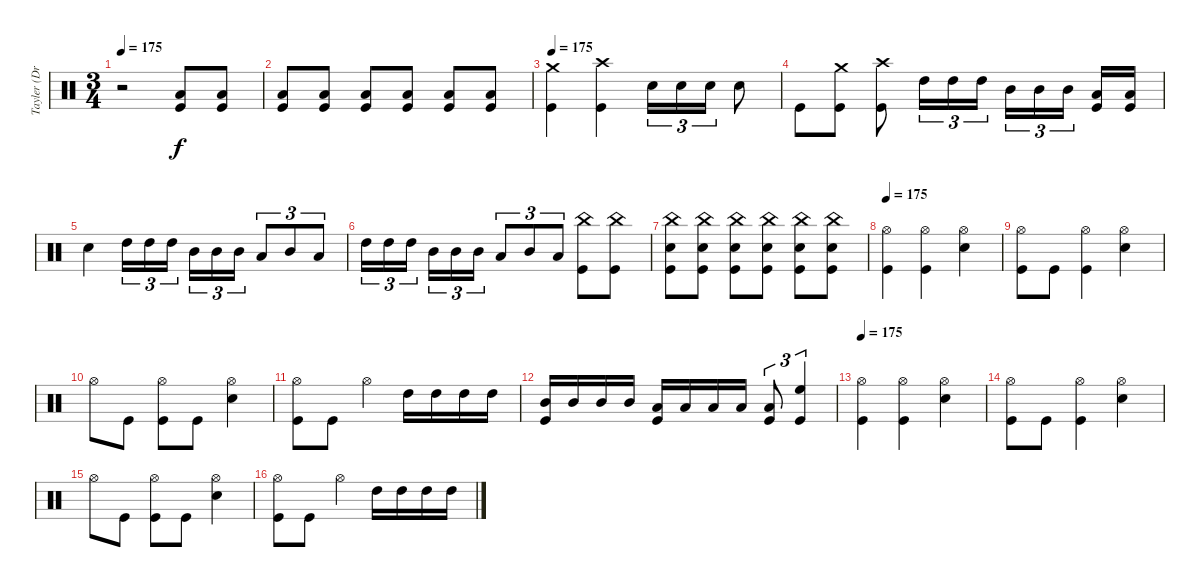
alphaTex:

\track ("Tayler (Drums)" "Tayler (Dr") {instrument percussion}
\staff {score}
\articulation defaults
\ts (3 4)
\tempo 175
\clef neutral
\ks c
r.2{dy f} ("Low Tom (hit)" "Kick (hit)").8 ("Low Tom (hit)" "Kick (hit)").8 |
("Low Tom (hit)" "Kick (hit)").8 ("Low Tom (hit)" "Kick (hit)").8 ("Low Tom (hit)" "Kick (hit)").8 ("Low Tom (hit)" "Kick (hit)").8 ("Low Tom (hit)" "Kick (hit)").8 ("Low Tom (hit)" "Kick (hit)").8 |
\tempo 175
("Crash medium (hit)" "Kick (hit)").4 ("Crash high (hit)" "Kick (hit)").4 "Electric Snare (hit)".16{tu (3 2)} "Electric Snare (hit)".16{tu (3 2)} "Electric Snare (hit)".16{tu (3 2)} "Electric Snare (hit)".8 |
"Kick (hit)".8 ("Crash medium (hit)" "Kick (hit)").8 ("Crash high (hit)" "Kick (hit)").8 "High Tom (hit)".16{tu (3 2)} "High Tom (hit)".16{tu (3 2)} "High Tom (hit)".16{tu (3 2)} "Mid Tom (hit)".16{tu (3 2)} "Mid Tom (hit)".16{tu (3 2)} "Mid Tom (hit)".16{tu (3 2)} ("Low Tom (hit)" "Kick (hit)").16 ("Low Tom (hit)" "Kick (hit)").16 |
"Electric Snare (hit)".4 "High Tom (hit)".16{tu (3 2)} "High Tom (hit)".16{tu (3 2)} "High Tom (hit)".16{tu (3 2)} "Mid Tom (hit)".16{tu (3 2)} "Mid Tom (hit)".16{tu (3 2)} "Mid Tom (hit)".16{tu (3 2)} "Low Tom (hit)".8{tu (3 2)} "Mid Tom (hit)".8{tu (3 2)} "Low Tom (hit)".8{tu (3 2)} |
"High Tom (hit)".16{tu (3 2)} "High Tom (hit)".16{tu (3 2)} "High Tom (hit)".16{tu (3 2)} "Mid Tom (hit)".16{tu (3 2)} "Mid Tom (hit)".16{tu (3 2)} "Mid Tom (hit)".16{tu (3 2)} "Low Tom (hit)".8{tu (3 2)} "Mid Tom (hit)".8{tu (3 2)} "Low Tom (hit)".8{tu (3 2)} ("China (hit)" "Kick (hit)").8 ("China (hit)" "Kick (hit)").8 |
("China (hit)" "Electric Snare (hit)" "Kick (hit)").8 ("China (hit)" "Electric Snare (hit)" "Kick (hit)").8 ("China (hit)" "Electric Snare (hit)" "Kick (hit)").8 ("China (hit)" "Electric Snare (hit)" "Kick (hit)").8 ("China (hit)" "Electric Snare (hit)" "Kick (hit)").8 ("China (hit)" "Electric Snare (hit)" "Kick (hit)").8 |
\tempo 175
("Hi-Hat (open)" "Kick (hit)").4 ("Hi-Hat (open)" "Kick (hit)").4 ("Hi-Hat (open)" "Electric Snare (hit)").4 |
("Hi-Hat (open)" "Kick (hit)").8 "Kick (hit)".8 ("Hi-Hat (open)" "Kick (hit)").4 ("Hi-Hat (open)" "Electric Snare (hit)").4 |
"Hi-Hat (open)".8 "Kick (hit)".8 ("Hi-Hat (open)" "Kick (hit)").8 "Kick (hit)".8 ("Hi-Hat (open)" "Electric Snare (hit)").4 |
("Hi-Hat (open)" "Kick (hit)").8 "Kick (hit)".8 "Hi-Hat (open)".4 "High Tom (hit)".16 "High Tom (hit)".16 "High Tom (hit)".16 "High Tom (hit)".16 |
("Mid Tom (hit)" "Kick (hit)").16 "Mid Tom (hit)".16 "Mid Tom (hit)".16 "Mid Tom (hit)".16 ("Low Tom (hit)" "Kick (hit)").16 "Low Tom (hit)".16 "Low Tom (hit)".16 "Low Tom (hit)".16 ("Low Tom (hit)" "Kick (hit)").8{tu (3 2)} ("High Floor Tom (hit)" "Kick (hit)").4{tu (3 2)} |
\tempo 175
("Hi-Hat (open)" "Kick (hit)").4 ("Hi-Hat (open)" "Kick (hit)").4 ("Hi-Hat (open)" "Electric Snare (hit)").4 |
("Hi-Hat (open)" "Kick (hit)").8 "Kick (hit)".8 ("Hi-Hat (open)" "Kick (hit)").4 ("Hi-Hat (open)" "Electric Snare (hit)").4 |
"Hi-Hat (open)".8 "Kick (hit)".8 ("Hi-Hat (open)" "Kick (hit)").8 "Kick (hit)".8 ("Hi-Hat (open)" "Electric Snare (hit)").4 |
("Hi-Hat (open)" "Kick (hit)").8 "Kick (hit)".8 "Hi-Hat (open)".4 "High Tom (hit)".16 "High Tom (hit)".16 "High Tom (hit)".16 "High Tom (hit)".16
